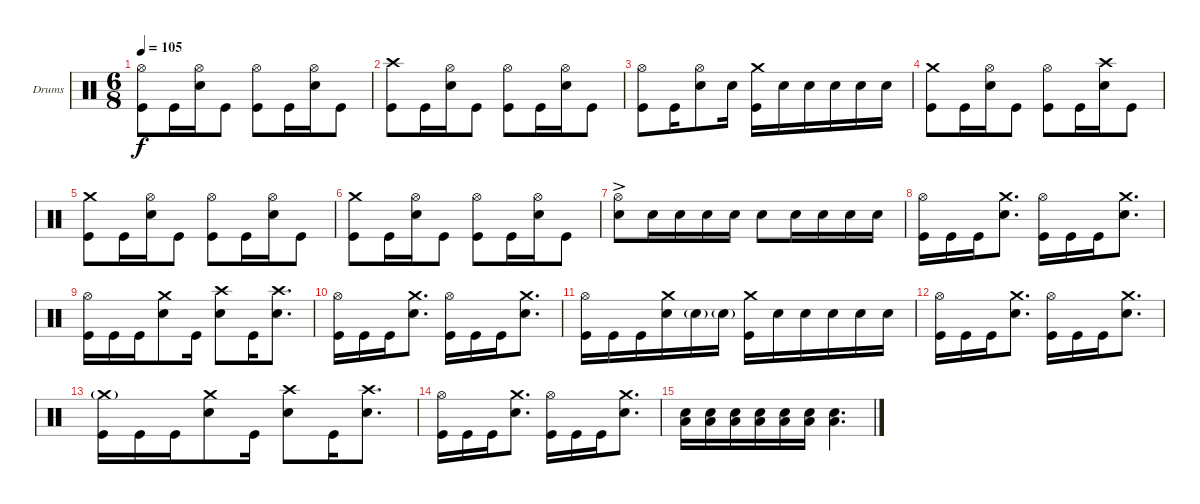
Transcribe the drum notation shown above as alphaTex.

\defaultSystemsLayout 4
\bracketExtendMode groupsimilarinstruments
\firstSystemTrackNameOrientation horizontal
\otherSystemsTrackNameOrientation horizontal
\track ("Stefan Schwarzmann" "Drums") {instrument percussion}
\staff {score}
\articulation defaults
\ts (6 8)
\tempo 105
\clef neutral
\ks c
("Hi-Hat (open)" "Kick (hit)").8{dy f} "Kick (hit)".16 ("Hi-Hat (open)" "Snare (hit) 2").16 "Kick (hit)".8 ("Hi-Hat (open)" "Kick (hit)").8 "Kick (hit)".16 ("Hi-Hat (open)" "Snare (hit) 2").16 "Kick (hit)".8 |
("Crash high (hit)" "Kick (hit)").8 "Kick (hit)".16 ("Hi-Hat (open)" "Snare (hit) 2").16 "Kick (hit)".8 ("Hi-Hat (open)" "Kick (hit)").8 "Kick (hit)".16 ("Hi-Hat (open)" "Snare (hit) 2").16 "Kick (hit)".8 |
("Hi-Hat (open)" "Kick (hit)").8 "Kick (hit)".16 ("Hi-Hat (open)" "Snare (hit) 2").8 "Snare (hit) 2".16 ("Crash medium (hit)" "Kick (hit)").16 "Snare (hit) 2".16 "Snare (hit) 2".16 "Snare (hit) 2".16 "Snare (hit) 2".16 "Snare (hit) 2".16 |
("Crash medium (hit)" "Kick (hit)").8 "Kick (hit)".16 ("Hi-Hat (open)" "Snare (hit) 2").16 "Kick (hit)".8 ("Hi-Hat (open)" "Kick (hit)").8 "Kick (hit)".16 ("Crash high (hit)" "Snare (hit) 2").16 "Kick (hit)".8 |
("Crash medium (hit)" "Kick (hit)").8 "Kick (hit)".16 ("Hi-Hat (open)" "Snare (hit) 2").16 "Kick (hit)".8 ("Hi-Hat (open)" "Kick (hit)").8 "Kick (hit)".16 ("Hi-Hat (open)" "Snare (hit) 2").16 "Kick (hit)".8 |
("Crash medium (hit)" "Kick (hit)").8 "Kick (hit)".16 ("Hi-Hat (open)" "Snare (hit) 2").16 "Kick (hit)".8 ("Hi-Hat (open)" "Kick (hit)").8 "Kick (hit)".16 ("Hi-Hat (open)" "Snare (hit) 2").16 "Kick (hit)".8 |
("Hi-Hat (open)" "Snare (hit) 2"{ac}).8 "Snare (hit) 2".16 "Snare (hit) 2".16 "Snare (hit) 2".16 "Snare (hit) 2".16 "Snare (hit) 2".8 "Snare (hit) 2".16 "Snare (hit) 2".16 "Snare (hit) 2".16 "Snare (hit) 2".16 |
("Hi-Hat (open)" "Kick (hit)").16 "Kick (hit)".16 "Kick (hit)".16 ("Crash medium (hit)" "Snare (hit) 2").8{d} ("Hi-Hat (open)" "Kick (hit)").16 "Kick (hit)".16 "Kick (hit)".16 ("Crash medium (hit)" "Snare (hit) 2").8{d} |
("Hi-Hat (open)" "Kick (hit)").16 "Kick (hit)".16 "Kick (hit)".16 ("Crash medium (hit)" "Snare (hit) 2").8 "Kick (hit)".16 ("Crash high (hit)" "Snare (hit) 2").8 "Kick (hit)".16 ("Crash high (hit)" "Snare (hit) 2").8{d} |
("Hi-Hat (open)" "Kick (hit)").16 "Kick (hit)".16 "Kick (hit)".16 ("Crash medium (hit)" "Snare (hit) 2").8{d} ("Hi-Hat (open)" "Kick (hit)").16 "Kick (hit)".16 "Kick (hit)".16 ("Crash medium (hit)" "Snare (hit) 2").8{d} |
("Hi-Hat (open)" "Kick (hit)").16 "Kick (hit)".16 "Kick (hit)".16 ("Crash medium (hit)" "Snare (hit) 2").16 "Snare (hit) 2"{g}.16 "Snare (hit) 2"{g}.16 ("Crash medium (hit)" "Kick (hit)").16 "Snare (hit) 2".16 "Snare (hit) 2".16 "Snare (hit) 2".16 "Snare (hit) 2".16 "Snare (hit) 2".16 |
("Hi-Hat (open)" "Kick (hit)").16 "Kick (hit)".16 "Kick (hit)".16 ("Crash medium (hit)" "Snare (hit) 2").8{d} ("Hi-Hat (open)" "Kick (hit)").16 "Kick (hit)".16 "Kick (hit)".16 ("Crash medium (hit)" "Snare (hit) 2").8{d} |
("Crash medium (hit)"{g} "Kick (hit)").16 "Kick (hit)".16 "Kick (hit)".16 ("Crash medium (hit)" "Snare (hit) 2").8 "Kick (hit)".16 ("Crash high (hit)" "Snare (hit) 2").8 "Kick (hit)".16 ("Crash high (hit)" "Snare (hit) 2").8{d} |
("Hi-Hat (open)" "Kick (hit)").16 "Kick (hit)".16 "Kick (hit)".16 ("Crash medium (hit)" "Snare (hit) 2").8{d} ("Hi-Hat (open)" "Kick (hit)").16 "Kick (hit)".16 "Kick (hit)".16 ("Crash medium (hit)" "Snare (hit) 2").8{d} |
("Low Tom (hit)" "Snare (hit) 2").16 ("Low Tom (hit)" "Snare (hit) 2").16 ("Low Tom (hit)" "Snare (hit) 2").16 ("Low Tom (hit)" "Snare (hit) 2").16 ("Low Tom (hit)" "Snare (hit) 2").16 ("Low Tom (hit)" "Snare (hit) 2").16 ("Low Tom (hit)" "Snare (hit) 2").4{d}
